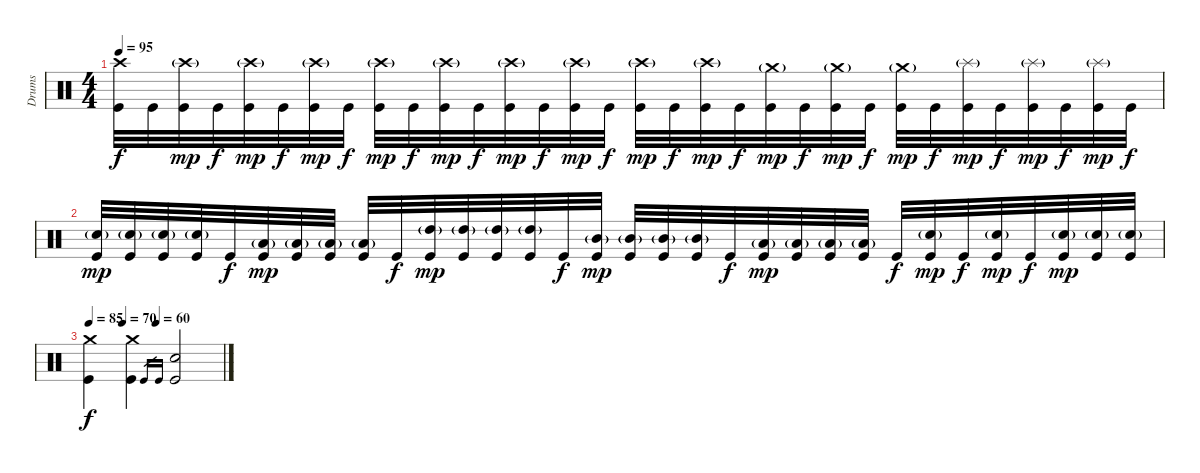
\track ("Drums" "Drums") {instrument percussion}
\staff {score}
\articulation defaults
\ts (4 4)
\tempo 95
\clef neutral
\ks c
("Crash high (hit)" "Kick (hit)").32{dy f} "Kick (hit)".32 ("Crash high (hit)"{g} "Kick (hit)").32{dy mp} "Kick (hit)".32{dy f} ("Crash high (hit)"{g} "Kick (hit)").32{dy mp} "Kick (hit)".32{dy f} ("Crash high (hit)"{g} "Kick (hit)").32{dy mp} "Kick (hit)".32{dy f} ("Crash high (hit)"{g} "Kick (hit)").32{dy mp} "Kick (hit)".32{dy f} ("Crash high (hit)"{g} "Kick (hit)").32{dy mp} "Kick (hit)".32{dy f} ("Crash high (hit)"{g} "Kick (hit)").32{dy mp} "Kick (hit)".32{dy f} ("Crash high (hit)"{g} "Kick (hit)").32{dy mp} "Kick (hit)".32{dy f} ("Crash high (hit)"{g} "Kick (hit)").32{dy mp} "Kick (hit)".32{dy f} ("Crash high (hit)"{g} "Kick (hit)").32{dy mp} "Kick (hit)".32{dy f} ("Crash medium (hit)"{g} "Kick (hit)").32{dy mp} "Kick (hit)".32{dy f} ("Crash medium (hit)"{g} "Kick (hit)").32{dy mp} "Kick (hit)".32{dy f} ("Crash medium (hit)"{g} "Kick (hit)").32{dy mp} "Kick (hit)".32{dy f} ("Splash (hit)"{g} "Kick (hit)").32{dy mp} "Kick (hit)".32{dy f} ("Splash (hit)"{g} "Kick (hit)").32{dy mp} "Kick (hit)".32{dy f} ("Splash (hit)"{g} "Kick (hit)").32{dy mp} "Kick (hit)".32{dy f} |
("Electric Snare (hit)"{g} "Kick (hit)").32{dy mp} ("Electric Snare (hit)"{g} "Kick (hit)").32 ("Electric Snare (hit)"{g} "Kick (hit)").32 ("Electric Snare (hit)"{g} "Kick (hit)").32 "Kick (hit)".32{dy f} ("Low Tom (hit)"{g} "Kick (hit)").32{dy mp} ("Low Tom (hit)"{g} "Kick (hit)").32 ("Low Tom (hit)"{g} "Kick (hit)").32 ("Low Tom (hit)"{g} "Kick (hit)").32 "Kick (hit)".32{dy f} ("High Tom (hit)"{g} "Kick (hit)").32{dy mp} ("High Tom (hit)"{g} "Kick (hit)").32 ("High Tom (hit)"{g} "Kick (hit)").32 ("High Tom (hit)"{g} "Kick (hit)").32 "Kick (hit)".32{dy f} ("Mid Tom (hit)"{g} "Kick (hit)").32{dy mp} ("Mid Tom (hit)"{g} "Kick (hit)").32 ("Mid Tom (hit)"{g} "Kick (hit)").32 ("Mid Tom (hit)"{g} "Kick (hit)").32 "Kick (hit)".32{dy f} ("Low Floor Tom (hit)"{g} "Kick (hit)").32{dy mp} ("Low Floor Tom (hit)"{g} "Kick (hit)").32 ("Low Floor Tom (hit)"{g} "Kick (hit)").32 ("Low Floor Tom (hit)"{g} "Kick (hit)").32 "Kick (hit)".32{dy f} ("Electric Snare (hit)"{g} "Kick (hit)").32{dy mp} "Kick (hit)".32{dy f} ("Electric Snare (hit)"{g} "Kick (hit)").32{dy mp} "Kick (hit)".32{dy f} ("Electric Snare (hit)"{g} "Kick (hit)").32{dy mp} ("Electric Snare (hit)"{g} "Kick (hit)").32 ("Electric Snare (hit)"{g} "Kick (hit)").32 |
\tempo (60 0.5)
\tempo 85
\tempo (70 0.25)
("Crash medium (hit)" "Kick (hit)").4{dy f} ("Crash medium (hit)" "Kick (hit)").4 "Kick (hit)"{sl}.16{gr} "Kick (hit)".16{gr} ("Electric Snare (hit)" "Kick (hit)").2
